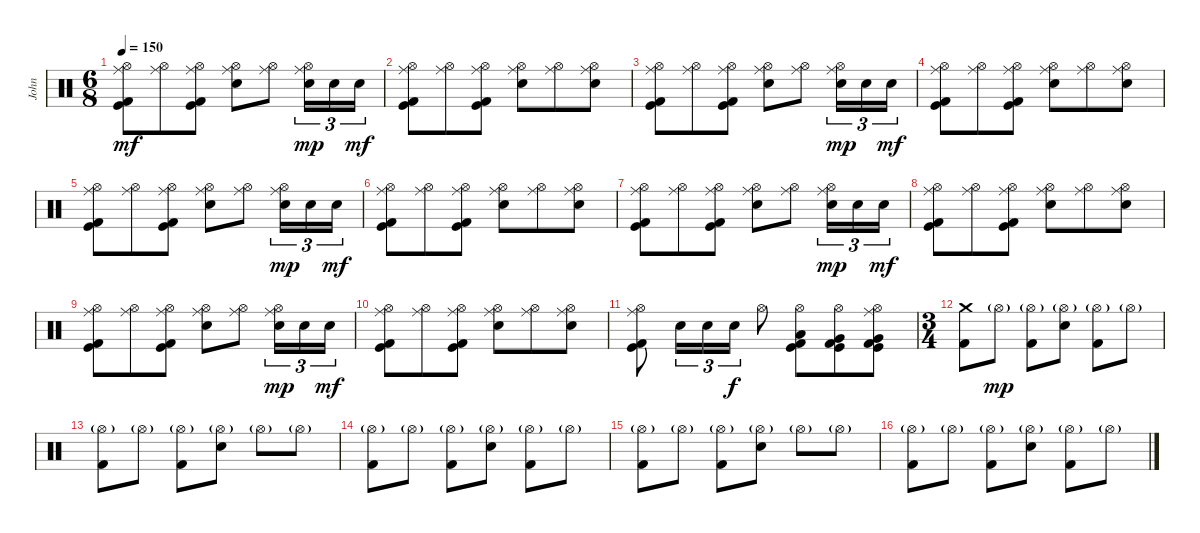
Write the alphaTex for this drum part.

\track ("John" "John") {instrument percussion}
\staff {score}
\articulation defaults
\ts (6 8)
\tempo 150
\clef neutral
\ks c
("Ride (middle)" "Hi-Hat (open)" "Kick (hit)" "Kick (hit) 2").8{dy mf} ("Ride (middle)" "Hi-Hat (open)").8 ("Ride (middle)" "Hi-Hat (open)" "Kick (hit)" "Kick (hit) 2").8 ("Ride (middle)" "Hi-Hat (open)" "Electric Snare (hit)").8 ("Ride (middle)" "Hi-Hat (open)").8 ("Ride (middle)" "Hi-Hat (open)" "Electric Snare (hit)").16{tu (3 2) dy mp} "Electric Snare (hit)".16{tu (3 2)} "Electric Snare (hit)".16{tu (3 2) dy mf} |
("Ride (middle)" "Hi-Hat (open)" "Kick (hit)" "Kick (hit) 2").8 ("Ride (middle)" "Hi-Hat (open)").8 ("Ride (middle)" "Hi-Hat (open)" "Kick (hit)" "Kick (hit) 2").8 ("Ride (middle)" "Hi-Hat (open)" "Electric Snare (hit)").8 ("Ride (middle)" "Hi-Hat (open)").8 ("Ride (middle)" "Hi-Hat (open)" "Electric Snare (hit)").8 |
("Ride (middle)" "Hi-Hat (open)" "Kick (hit)" "Kick (hit) 2").8 ("Ride (middle)" "Hi-Hat (open)").8 ("Ride (middle)" "Hi-Hat (open)" "Kick (hit)" "Kick (hit) 2").8 ("Ride (middle)" "Hi-Hat (open)" "Electric Snare (hit)").8 ("Ride (middle)" "Hi-Hat (open)").8 ("Ride (middle)" "Hi-Hat (open)" "Electric Snare (hit)").16{tu (3 2) dy mp} "Electric Snare (hit)".16{tu (3 2)} "Electric Snare (hit)".16{tu (3 2) dy mf} |
("Ride (middle)" "Hi-Hat (open)" "Kick (hit)" "Kick (hit) 2").8 ("Ride (middle)" "Hi-Hat (open)").8 ("Ride (middle)" "Hi-Hat (open)" "Kick (hit)" "Kick (hit) 2").8 ("Ride (middle)" "Hi-Hat (open)" "Electric Snare (hit)").8 ("Ride (middle)" "Hi-Hat (open)").8 ("Ride (middle)" "Hi-Hat (open)" "Electric Snare (hit)").8 |
("Ride (middle)" "Hi-Hat (open)" "Kick (hit)" "Kick (hit) 2").8 ("Ride (middle)" "Hi-Hat (open)").8 ("Ride (middle)" "Hi-Hat (open)" "Kick (hit)" "Kick (hit) 2").8 ("Ride (middle)" "Hi-Hat (open)" "Electric Snare (hit)").8 ("Ride (middle)" "Hi-Hat (open)").8 ("Ride (middle)" "Hi-Hat (open)" "Electric Snare (hit)").16{tu (3 2) dy mp} "Electric Snare (hit)".16{tu (3 2)} "Electric Snare (hit)".16{tu (3 2) dy mf} |
("Ride (middle)" "Hi-Hat (open)" "Kick (hit)" "Kick (hit) 2").8 ("Ride (middle)" "Hi-Hat (open)").8 ("Ride (middle)" "Hi-Hat (open)" "Kick (hit)" "Kick (hit) 2").8 ("Ride (middle)" "Hi-Hat (open)" "Electric Snare (hit)").8 ("Ride (middle)" "Hi-Hat (open)").8 ("Ride (middle)" "Hi-Hat (open)" "Electric Snare (hit)").8 |
("Ride (middle)" "Hi-Hat (open)" "Kick (hit)" "Kick (hit) 2").8 ("Ride (middle)" "Hi-Hat (open)").8 ("Ride (middle)" "Hi-Hat (open)" "Kick (hit)" "Kick (hit) 2").8 ("Ride (middle)" "Hi-Hat (open)" "Electric Snare (hit)").8 ("Ride (middle)" "Hi-Hat (open)").8 ("Ride (middle)" "Hi-Hat (open)" "Electric Snare (hit)").16{tu (3 2) dy mp} "Electric Snare (hit)".16{tu (3 2)} "Electric Snare (hit)".16{tu (3 2) dy mf} |
("Ride (middle)" "Hi-Hat (open)" "Kick (hit)" "Kick (hit) 2").8 ("Ride (middle)" "Hi-Hat (open)").8 ("Ride (middle)" "Hi-Hat (open)" "Kick (hit)" "Kick (hit) 2").8 ("Ride (middle)" "Hi-Hat (open)" "Electric Snare (hit)").8 ("Ride (middle)" "Hi-Hat (open)").8 ("Ride (middle)" "Hi-Hat (open)" "Electric Snare (hit)").8 |
("Ride (middle)" "Hi-Hat (open)" "Kick (hit)" "Kick (hit) 2").8 ("Ride (middle)" "Hi-Hat (open)").8 ("Ride (middle)" "Hi-Hat (open)" "Kick (hit)" "Kick (hit) 2").8 ("Ride (middle)" "Hi-Hat (open)" "Electric Snare (hit)").8 ("Ride (middle)" "Hi-Hat (open)").8 ("Ride (middle)" "Hi-Hat (open)" "Electric Snare (hit)").16{tu (3 2) dy mp} "Electric Snare (hit)".16{tu (3 2)} "Electric Snare (hit)".16{tu (3 2) dy mf} |
("Ride (middle)" "Hi-Hat (open)" "Kick (hit)" "Kick (hit) 2").8 ("Ride (middle)" "Hi-Hat (open)").8 ("Ride (middle)" "Hi-Hat (open)" "Kick (hit)" "Kick (hit) 2").8 ("Ride (middle)" "Hi-Hat (open)" "Electric Snare (hit)").8 ("Ride (middle)" "Hi-Hat (open)").8 ("Ride (middle)" "Hi-Hat (open)" "Electric Snare (hit)").8 |
("Ride (middle)" "Hi-Hat (open)" "Kick (hit)" "Kick (hit) 2").8 "Electric Snare (hit)".16{tu (3 2)} "Electric Snare (hit)".16{tu (3 2)} "Electric Snare (hit)".16{tu (3 2) dy f} "Hi-Hat (open)".8 ("Hi-Hat (open)" "Low Tom (hit)" "Kick (hit)" "Kick (hit) 2").8 ("Hi-Hat (open)" "Very Low Tom (hit)" "Kick (hit)" "Kick (hit) 2").8 ("Ride (middle)" "Hi-Hat (open)" "Very Low Tom (hit)" "Kick (hit)" "Kick (hit) 2").8 |
\ts (3 4)
("Crash medium (hit)" "Kick (hit) 2").8 "Hi-Hat (open)"{g}.8{dy mp} ("Hi-Hat (open)"{g} "Kick (hit) 2").8 ("Hi-Hat (open)"{g} "Electric Snare (hit)").8 ("Hi-Hat (open)"{g} "Kick (hit) 2").8 "Hi-Hat (open)"{g}.8 |
("Hi-Hat (open)"{g} "Kick (hit) 2").8 "Hi-Hat (open)"{g}.8 ("Hi-Hat (open)"{g} "Kick (hit) 2").8 ("Hi-Hat (open)"{g} "Electric Snare (hit)").8 "Hi-Hat (open)"{g}.8 "Hi-Hat (open)"{g}.8 |
("Hi-Hat (open)"{g} "Kick (hit) 2").8 "Hi-Hat (open)"{g}.8 ("Hi-Hat (open)"{g} "Kick (hit) 2").8 ("Hi-Hat (open)"{g} "Electric Snare (hit)").8 ("Hi-Hat (open)"{g} "Kick (hit) 2").8 "Hi-Hat (open)"{g}.8 |
("Hi-Hat (open)"{g} "Kick (hit) 2").8 "Hi-Hat (open)"{g}.8 ("Hi-Hat (open)"{g} "Kick (hit) 2").8 ("Hi-Hat (open)"{g} "Electric Snare (hit)").8 "Hi-Hat (open)"{g}.8 "Hi-Hat (open)"{g}.8 |
("Hi-Hat (open)"{g} "Kick (hit) 2").8 "Hi-Hat (open)"{g}.8 ("Hi-Hat (open)"{g} "Kick (hit) 2").8 ("Hi-Hat (open)"{g} "Electric Snare (hit)").8 ("Hi-Hat (open)"{g} "Kick (hit) 2").8 "Hi-Hat (open)"{g}.8
